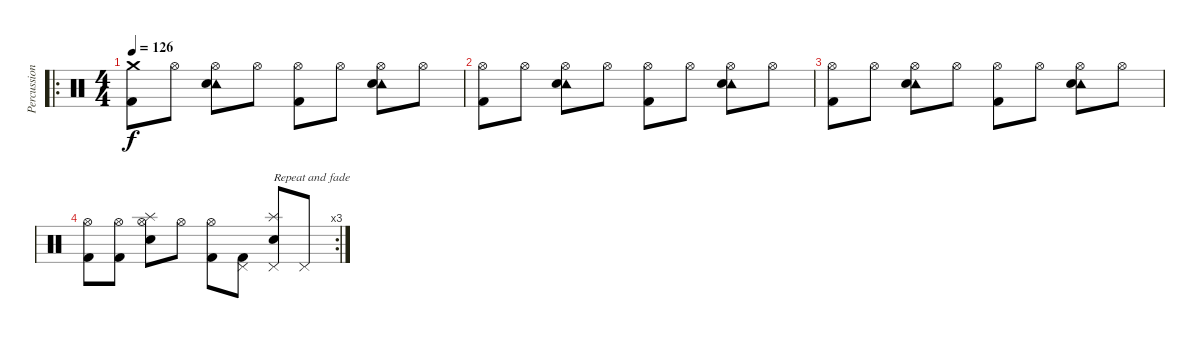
\track ("Percussion" "Percussion") {instrument percussion}
\staff {score}
\articulation defaults
\ro
\ts (4 4)
\tempo 126
\clef neutral
\ks c
("Crash medium (hit)" "Kick (hit) 2").8{dy f} "Hi-Hat (open)".8 ("Hi-Hat (open)" "Tambourine (hit)" "Metronome (bell)").8 "Hi-Hat (open)".8 ("Hi-Hat (open)" "Kick (hit) 2").8 "Hi-Hat (open)".8 ("Hi-Hat (open)" "Tambourine (hit)" "Metronome (bell)").8 "Hi-Hat (open)".8 |
("Hi-Hat (open)" "Kick (hit) 2").8 "Hi-Hat (open)".8 ("Hi-Hat (open)" "Tambourine (hit)" "Metronome (bell)").8 "Hi-Hat (open)".8 ("Hi-Hat (open)" "Kick (hit) 2").8 "Hi-Hat (open)".8 ("Hi-Hat (open)" "Tambourine (hit)" "Metronome (bell)").8 "Hi-Hat (open)".8 |
("Hi-Hat (open)" "Kick (hit) 2").8 "Hi-Hat (open)".8 ("Hi-Hat (open)" "Tambourine (hit)" "Metronome (bell)").8 "Hi-Hat (open)".8 ("Hi-Hat (open)" "Kick (hit) 2").8 "Hi-Hat (open)".8 ("Hi-Hat (open)" "Tambourine (hit)" "Metronome (bell)").8 "Hi-Hat (open)".8 |
\rc 3
("Hi-Hat (open)" "Kick (hit) 2").8 ("Hi-Hat (open)" "Kick (hit) 2").8 ("Hi-Hat (open)" "Splash (hit)" "Metronome (bell)").8 "Hi-Hat (open)".8 ("Hi-Hat (open)" "Kick (hit) 2").8 ("Pedal Hi-Hat (hit)" "Kick (hit) 2").8 ("Pedal Hi-Hat (hit)" "Splash (hit)" "Metronome (bell)").8{txt "Repeat and fade"} "Pedal Hi-Hat (hit)".8
